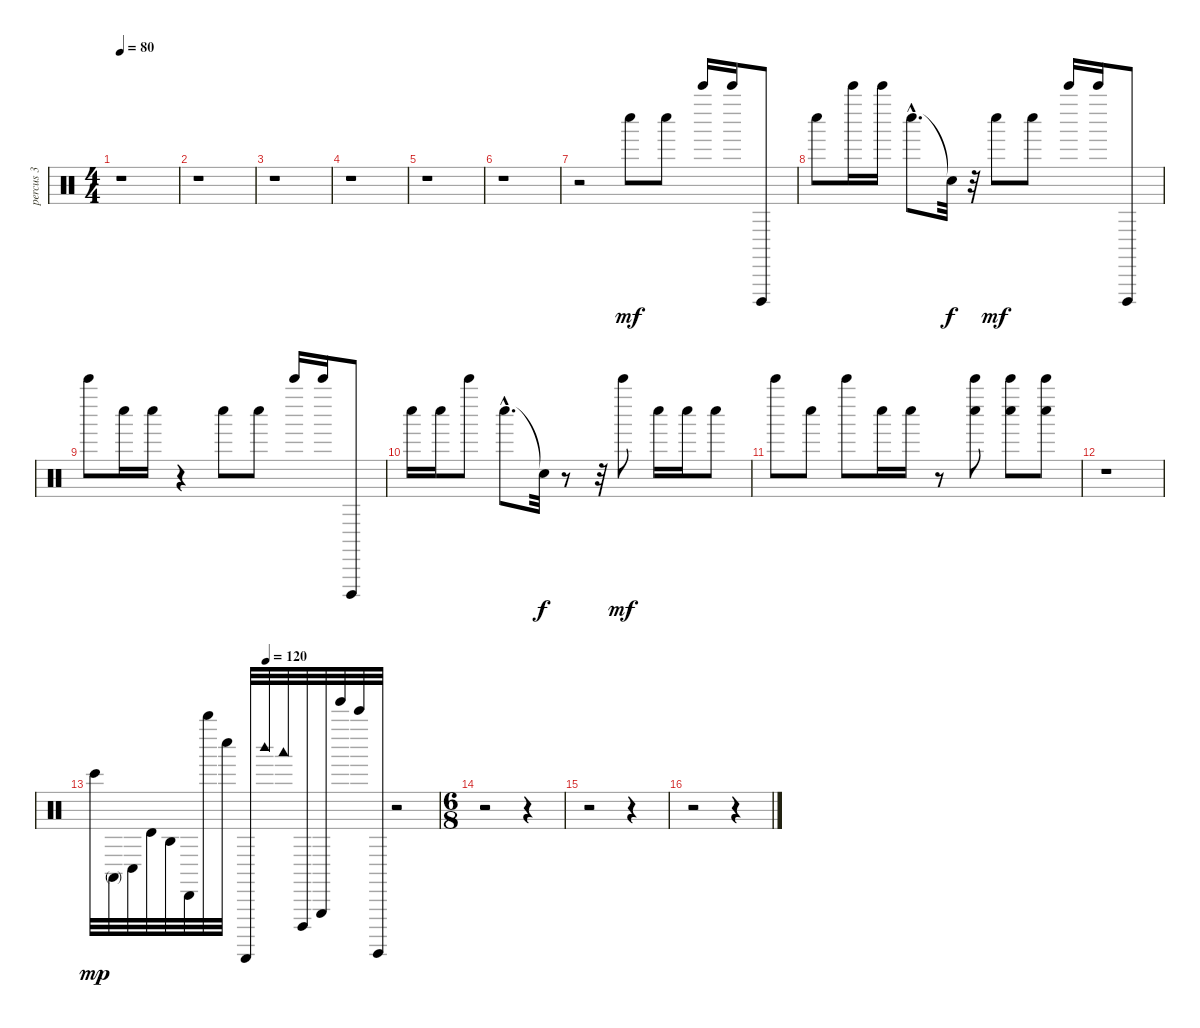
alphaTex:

\track ("percus 3" "percus 3") {instrument percussion}
\staff {score}
\articulation defaults
\ts (4 4)
\tempo 80
\clef neutral
\ks c
r.1{dy mf} |
r.1 |
r.1 |
r.1 |
r.1 |
r.1 |
r.2 "Whistle low (hit)".8 "Whistle low (hit)".8 "Bell Tree (hit)".16 "Bell Tree (hit)".16 "Cuica (open)".8 |
"Whistle low (hit)".8 "Bell Tree (hit)".16 "Bell Tree (hit)".16 "Whistle low (hit)"{hac}.8{d} "Snare (hit)"{t}.32{dy f} r.32 "Whistle low (hit)".8{dy mf} "Whistle low (hit)".8 "Bell Tree (hit)".16 "Bell Tree (hit)".16 "Cuica (open)".8 |
"Bell Tree (hit)".8 "Whistle low (hit)".16 "Whistle low (hit)".16 r.4 "Whistle low (hit)".8 "Whistle low (hit)".8 "Bell Tree (hit)".16 "Bell Tree (hit)".16 "Cuica (open)".8 |
"Whistle low (hit)".16 "Whistle low (hit)".16 "Bell Tree (hit)".8 "Whistle low (hit)"{hac}.8{d} "Snare (hit)"{t}.32{dy f} r.8 r.32 "Bell Tree (hit)".8{dy mf} "Whistle low (hit)".16 "Whistle low (hit)".16 "Whistle low (hit)".8 |
"Bell Tree (hit)".8 "Whistle low (hit)".8 "Bell Tree (hit)".8 "Whistle low (hit)".16 "Whistle low (hit)".16 r.8 ("Whistle low (hit)" "Bell Tree (hit)").8 ("Whistle low (hit)" "Bell Tree (hit)").8 ("Whistle low (hit)" "Bell Tree (hit)").8 |
r.1 |
\tempo (120 0.5)
"Bongo High (hit)".32{dy mp} "Conga high (mute)".32 "Conga low (hit)".32 "Timbale high (hit)".32 "Agogo high (hit)".32 "Cabasa (hit)".32 "Whistle high (hit)".32 "Whistle low (hit)".32 "Guiro (scrap-return)".32 "Woodblock high (hit)".32 "Woodblock low (hit)".32 "Cuica (open)".32 "Triangle (hit)".32 "Tinkle Bell (hit)".32 "Bell Tree (hit)".32 "Surdo (hit)".32 r.2 |
\ts (6 8)
r.2 r.4 |
r.2 r.4 |
r.2 r.4
